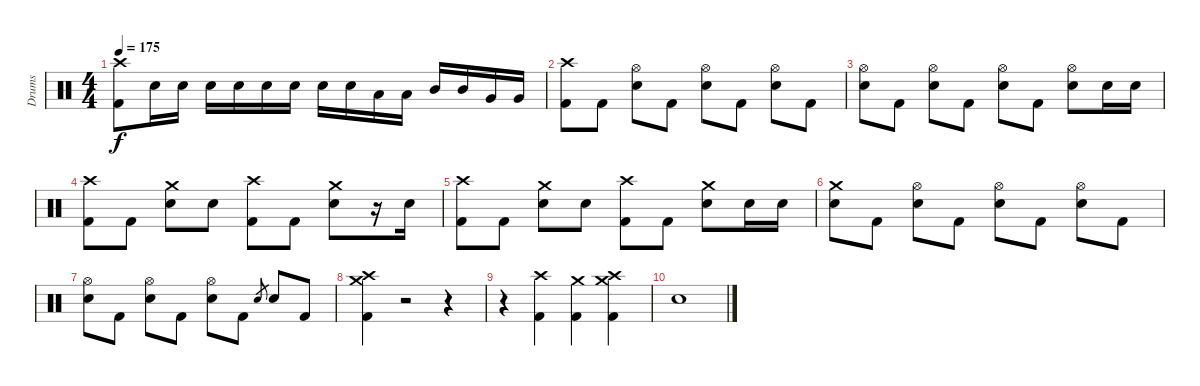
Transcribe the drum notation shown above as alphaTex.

\track ("Drums" "Drums") {instrument percussion}
\staff {score}
\articulation defaults
\ts (4 4)
\tempo 175
\clef neutral
\ks c
("Crash high (hit)" "Kick (hit) 2").8{dy f} "Electric Snare (hit)".16 "Electric Snare (hit)".16 "Electric Snare (hit)".16 "Electric Snare (hit)".16 "Electric Snare (hit)".16 "Electric Snare (hit)".16 "Electric Snare (hit)".16 "Electric Snare (hit)".16 "Low Tom (hit)".16 "Low Tom (hit)".16 "Mid Tom (hit)".16 "Mid Tom (hit)".16 "Very Low Tom (hit)".16 "Very Low Tom (hit)".16 |
("Crash high (hit)" "Kick (hit) 2").8 "Kick (hit) 2".8 ("Hi-Hat (open)" "Electric Snare (hit)").8 "Kick (hit) 2".8 ("Hi-Hat (open)" "Electric Snare (hit)").8 "Kick (hit) 2".8 ("Hi-Hat (open)" "Electric Snare (hit)").8 "Kick (hit) 2".8 |
("Hi-Hat (open)" "Electric Snare (hit)").8 "Kick (hit) 2".8 ("Hi-Hat (open)" "Electric Snare (hit)").8 "Kick (hit) 2".8 ("Hi-Hat (open)" "Electric Snare (hit)").8 "Kick (hit) 2".8 ("Hi-Hat (open)" "Electric Snare (hit)").8 "Electric Snare (hit)".16 "Electric Snare (hit)".16 |
("Crash high (hit)" "Kick (hit) 2").8 "Kick (hit) 2".8 ("Crash medium (hit)" "Electric Snare (hit)").8 "Electric Snare (hit)".8 ("Crash high (hit)" "Kick (hit) 2").8 "Kick (hit) 2".8 ("Crash medium (hit)" "Electric Snare (hit)").8 r.16 "Electric Snare (hit)".16 |
("Crash high (hit)" "Kick (hit) 2").8 "Kick (hit) 2".8 ("Crash medium (hit)" "Electric Snare (hit)").8 "Electric Snare (hit)".8 ("Crash high (hit)" "Kick (hit) 2").8 "Kick (hit) 2".8 ("Crash medium (hit)" "Electric Snare (hit)").8 "Electric Snare (hit)".16 "Electric Snare (hit)".16 |
("Crash medium (hit)" "Electric Snare (hit)").8 "Kick (hit) 2".8 ("Hi-Hat (open)" "Electric Snare (hit)").8 "Kick (hit) 2".8 ("Hi-Hat (open)" "Electric Snare (hit)").8 "Kick (hit) 2".8 ("Hi-Hat (open)" "Electric Snare (hit)").8 "Kick (hit) 2".8 |
("Hi-Hat (open)" "Electric Snare (hit)").8 "Kick (hit) 2".8 ("Hi-Hat (open)" "Electric Snare (hit)").8 "Kick (hit) 2".8 ("Hi-Hat (open)" "Electric Snare (hit)").8 "Kick (hit) 2".8 "Electric Snare (hit)".8{gr} "Electric Snare (hit)".8 "Kick (hit) 2".8 |
("Crash high (hit)" "Crash medium (hit)" "Kick (hit) 2").4 r.2 r.4 |
r.4 ("Crash high (hit)" "Kick (hit) 2").4 ("Crash medium (hit)" "Kick (hit) 2").4 ("Crash high (hit)" "Crash medium (hit)" "Kick (hit) 2").4 |
"Snare (hit)".1
